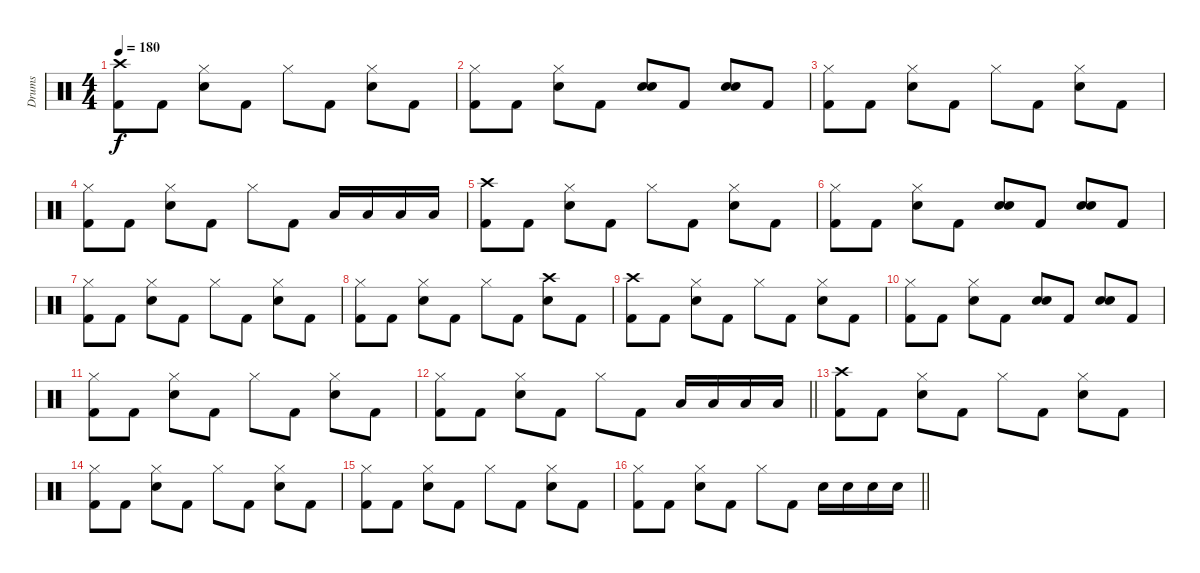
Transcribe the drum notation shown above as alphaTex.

\track ("Drums" "Drums") {instrument percussion}
\staff {score}
\articulation defaults
\ts (4 4)
\tempo 180
\clef neutral
\ks c
("Crash high (hit)" "Kick (hit) 2").8{dy f} "Kick (hit) 2".8 ("Hi-Hat (closed)" "Snare (hit) 2").8 "Kick (hit) 2".8 "Hi-Hat (closed)".8 "Kick (hit) 2".8 ("Hi-Hat (closed)" "Snare (hit) 2").8 "Kick (hit) 2".8 |
("Hi-Hat (closed)" "Kick (hit) 2").8 "Kick (hit) 2".8 ("Hi-Hat (closed)" "Snare (hit) 2").8 "Kick (hit) 2".8 ("Snare (hit) 2" "Snare (hit) 2").8{bd 120} "Kick (hit) 2".8 ("Snare (hit) 2" "Snare (hit) 2").8{bd 120} "Kick (hit) 2".8 |
("Hi-Hat (closed)" "Kick (hit) 2").8 "Kick (hit) 2".8 ("Hi-Hat (closed)" "Snare (hit) 2").8 "Kick (hit) 2".8 "Hi-Hat (closed)".8 "Kick (hit) 2".8 ("Hi-Hat (closed)" "Snare (hit) 2").8 "Kick (hit) 2".8 |
("Hi-Hat (closed)" "Kick (hit) 2").8 "Kick (hit) 2".8 ("Hi-Hat (closed)" "Snare (hit) 2").8 "Kick (hit) 2".8 "Hi-Hat (closed)".8 "Kick (hit) 2".8 "Low Tom (hit)".16 "Low Tom (hit)".16 "Low Tom (hit)".16 "Low Tom (hit)".16 |
("Crash high (hit)" "Kick (hit) 2").8 "Kick (hit) 2".8 ("Hi-Hat (closed)" "Snare (hit) 2").8 "Kick (hit) 2".8 "Hi-Hat (closed)".8 "Kick (hit) 2".8 ("Hi-Hat (closed)" "Snare (hit) 2").8 "Kick (hit) 2".8 |
("Hi-Hat (closed)" "Kick (hit) 2").8 "Kick (hit) 2".8 ("Hi-Hat (closed)" "Snare (hit) 2").8 "Kick (hit) 2".8 ("Snare (hit) 2" "Snare (hit) 2").8{bd 120} "Kick (hit) 2".8 ("Snare (hit) 2" "Snare (hit) 2").8{bd 120} "Kick (hit) 2".8 |
("Hi-Hat (closed)" "Kick (hit) 2").8 "Kick (hit) 2".8 ("Hi-Hat (closed)" "Snare (hit) 2").8 "Kick (hit) 2".8 "Hi-Hat (closed)".8 "Kick (hit) 2".8 ("Hi-Hat (closed)" "Snare (hit) 2").8 "Kick (hit) 2".8 |
("Hi-Hat (closed)" "Kick (hit) 2").8 "Kick (hit) 2".8 ("Hi-Hat (closed)" "Snare (hit) 2").8 "Kick (hit) 2".8 "Hi-Hat (closed)".8 "Kick (hit) 2".8 ("Crash high (hit)" "Snare (hit) 2").8 "Kick (hit) 2".8 |
("Crash high (hit)" "Kick (hit) 2").8 "Kick (hit) 2".8 ("Hi-Hat (closed)" "Snare (hit) 2").8 "Kick (hit) 2".8 "Hi-Hat (closed)".8 "Kick (hit) 2".8 ("Hi-Hat (closed)" "Snare (hit) 2").8 "Kick (hit) 2".8 |
("Hi-Hat (closed)" "Kick (hit) 2").8 "Kick (hit) 2".8 ("Hi-Hat (closed)" "Snare (hit) 2").8 "Kick (hit) 2".8 ("Snare (hit) 2" "Snare (hit) 2").8{bd 120} "Kick (hit) 2".8 ("Snare (hit) 2" "Snare (hit) 2").8{bd 120} "Kick (hit) 2".8 |
("Hi-Hat (closed)" "Kick (hit) 2").8 "Kick (hit) 2".8 ("Hi-Hat (closed)" "Snare (hit) 2").8 "Kick (hit) 2".8 "Hi-Hat (closed)".8 "Kick (hit) 2".8 ("Hi-Hat (closed)" "Snare (hit) 2").8 "Kick (hit) 2".8 |
\barLineRight lightlight
("Hi-Hat (closed)" "Kick (hit) 2").8 "Kick (hit) 2".8 ("Hi-Hat (closed)" "Snare (hit) 2").8 "Kick (hit) 2".8 "Hi-Hat (closed)".8 "Kick (hit) 2".8 "Low Tom (hit)".16 "Low Tom (hit)".16 "Low Tom (hit)".16 "Low Tom (hit)".16 |
("Crash high (hit)" "Kick (hit) 2").8 "Kick (hit) 2".8 ("Hi-Hat (closed)" "Snare (hit) 2").8 "Kick (hit) 2".8 "Hi-Hat (closed)".8 "Kick (hit) 2".8 ("Hi-Hat (closed)" "Snare (hit) 2").8 "Kick (hit) 2".8 |
("Hi-Hat (closed)" "Kick (hit) 2").8 "Kick (hit) 2".8 ("Hi-Hat (closed)" "Snare (hit) 2").8 "Kick (hit) 2".8 "Hi-Hat (closed)".8 "Kick (hit) 2".8 ("Hi-Hat (closed)" "Snare (hit) 2").8 "Kick (hit) 2".8 |
("Hi-Hat (closed)" "Kick (hit) 2").8 "Kick (hit) 2".8 ("Hi-Hat (closed)" "Snare (hit) 2").8 "Kick (hit) 2".8 "Hi-Hat (closed)".8 "Kick (hit) 2".8 ("Hi-Hat (closed)" "Snare (hit) 2").8 "Kick (hit) 2".8 |
\barLineRight lightlight
("Hi-Hat (closed)" "Kick (hit) 2").8 "Kick (hit) 2".8 ("Hi-Hat (closed)" "Snare (hit) 2").8 "Kick (hit) 2".8 "Hi-Hat (closed)".8 "Kick (hit) 2".8 "Snare (hit) 2".16 "Snare (hit) 2".16 "Snare (hit) 2".16 "Snare (hit) 2".16
